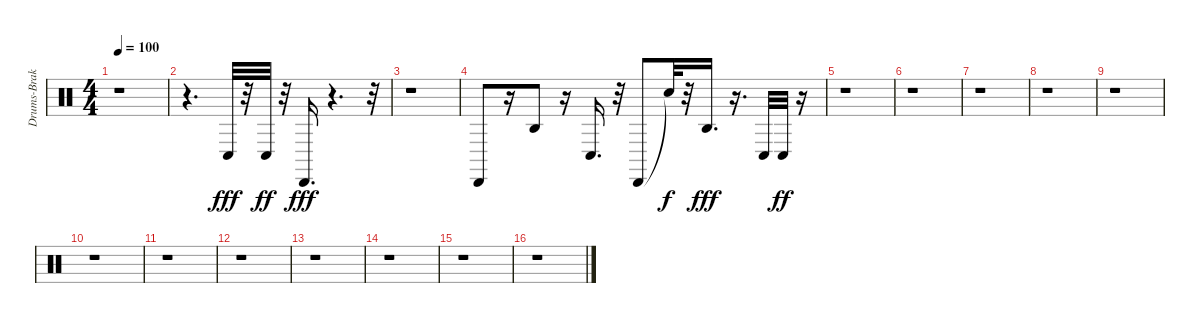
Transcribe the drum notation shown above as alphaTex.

\track ("Drums-Brakes" "Drums-Brak") {instrument percussion}
\staff {score}
\articulation defaults
\ts (4 4)
\tempo 100
\clef neutral
\ks c
r.1{dy fff} |
r.4{d} "Conga low (hit)".32 r.32 "Conga low (hit)".32{dy ff} r.32 "Cabasa (hit)".16{d dy fff} r.4{d} r.32 |
r.1 |
"Cabasa (hit)".8 r.16 "Agogo high (hit)".8 r.16 "Conga low (hit)".16{d} r.32 "Cabasa (hit)".8 "Snare (hit)"{t}.32{dy f} r.32 "Agogo high (hit)".16{d dy fff} r.16{d} "Conga low (hit)".32 "Conga low (hit)".32{dy ff} r.16 |
r.1 |
r.1 |
r.1 |
r.1 |
r.1 |
r.1 |
r.1 |
r.1 |
r.1 |
r.1 |
r.1 |
r.1
